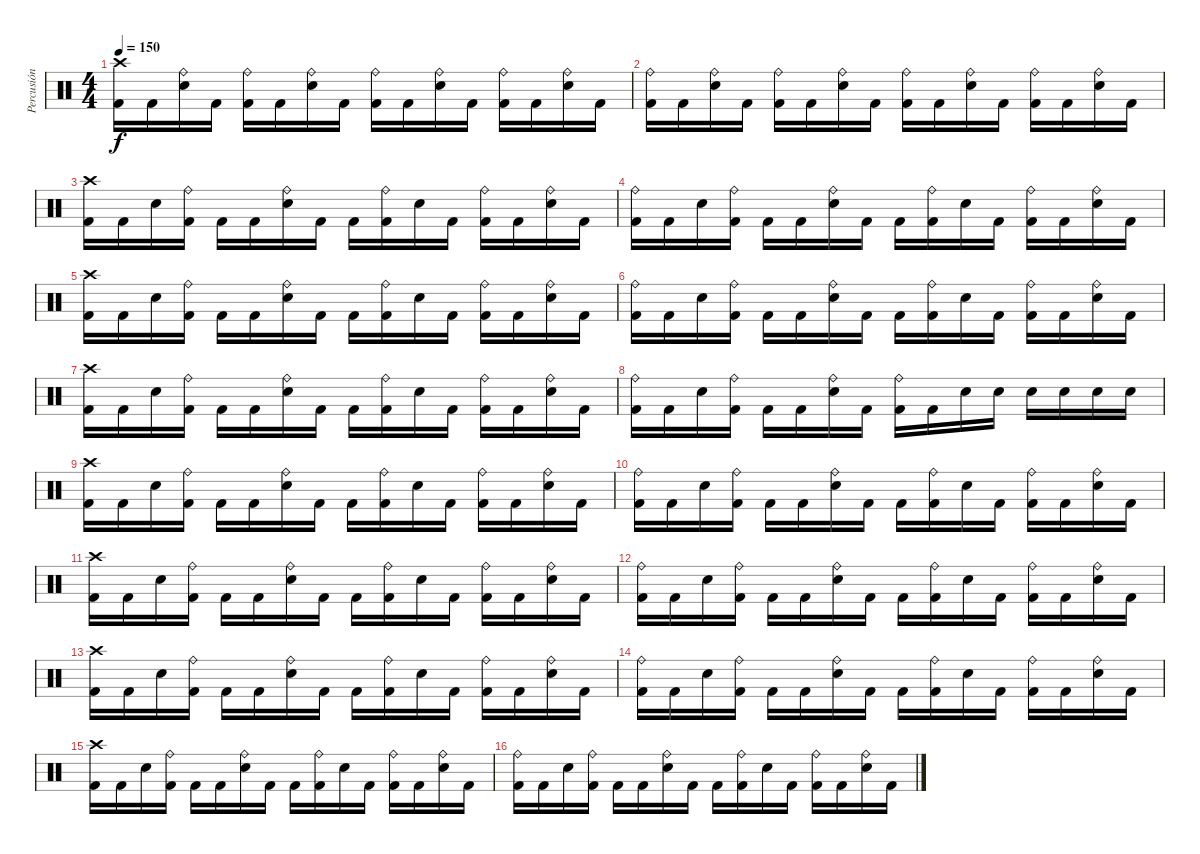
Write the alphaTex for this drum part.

\track ("Percusión" "Percusión") {instrument percussion}
\staff {score}
\articulation defaults
\ts (4 4)
\tempo 150
\clef neutral
\ks c
("Crash high (hit)" "Kick (hit) 2").16{dy f} "Kick (hit) 2".16 ("Ride (bell)" "Electric Snare (hit)").16 "Kick (hit) 2".16 ("Ride (bell)" "Kick (hit) 2").16 "Kick (hit) 2".16 ("Ride (bell)" "Electric Snare (hit)").16 "Kick (hit) 2".16 ("Ride (bell)" "Kick (hit) 2").16 "Kick (hit) 2".16 ("Ride (bell)" "Electric Snare (hit)").16 "Kick (hit) 2".16 ("Ride (bell)" "Kick (hit) 2").16 "Kick (hit) 2".16 ("Ride (bell)" "Electric Snare (hit)").16 "Kick (hit) 2".16 |
("Ride (bell)" "Kick (hit) 2").16 "Kick (hit) 2".16 ("Ride (bell)" "Electric Snare (hit)").16 "Kick (hit) 2".16 ("Ride (bell)" "Kick (hit) 2").16 "Kick (hit) 2".16 ("Ride (bell)" "Electric Snare (hit)").16 "Kick (hit) 2".16 ("Ride (bell)" "Kick (hit) 2").16 "Kick (hit) 2".16 ("Ride (bell)" "Electric Snare (hit)").16 "Kick (hit) 2".16 ("Ride (bell)" "Kick (hit) 2").16 "Kick (hit) 2".16 ("Ride (bell)" "Electric Snare (hit)").16 "Kick (hit) 2".16 |
("Crash high (hit)" "Kick (hit) 2").16 "Kick (hit) 2".16 "Electric Snare (hit)".16 ("Ride (bell)" "Kick (hit) 2").16 "Kick (hit) 2".16 "Kick (hit) 2".16 ("Ride (bell)" "Electric Snare (hit)").16 "Kick (hit) 2".16 "Kick (hit) 2".16 ("Ride (bell)" "Kick (hit) 2").16 "Electric Snare (hit)".16 "Kick (hit) 2".16 ("Ride (bell)" "Kick (hit) 2").16 "Kick (hit) 2".16 ("Ride (bell)" "Electric Snare (hit)").16 "Kick (hit) 2".16 |
("Ride (bell)" "Kick (hit) 2").16 "Kick (hit) 2".16 "Electric Snare (hit)".16 ("Ride (bell)" "Kick (hit) 2").16 "Kick (hit) 2".16 "Kick (hit) 2".16 ("Ride (bell)" "Electric Snare (hit)").16 "Kick (hit) 2".16 "Kick (hit) 2".16 ("Ride (bell)" "Kick (hit) 2").16 "Electric Snare (hit)".16 "Kick (hit) 2".16 ("Ride (bell)" "Kick (hit) 2").16 "Kick (hit) 2".16 ("Ride (bell)" "Electric Snare (hit)").16 "Kick (hit) 2".16 |
("Crash high (hit)" "Kick (hit) 2").16 "Kick (hit) 2".16 "Electric Snare (hit)".16 ("Ride (bell)" "Kick (hit) 2").16 "Kick (hit) 2".16 "Kick (hit) 2".16 ("Ride (bell)" "Electric Snare (hit)").16 "Kick (hit) 2".16 "Kick (hit) 2".16 ("Ride (bell)" "Kick (hit) 2").16 "Electric Snare (hit)".16 "Kick (hit) 2".16 ("Ride (bell)" "Kick (hit) 2").16 "Kick (hit) 2".16 ("Ride (bell)" "Electric Snare (hit)").16 "Kick (hit) 2".16 |
("Ride (bell)" "Kick (hit) 2").16 "Kick (hit) 2".16 "Electric Snare (hit)".16 ("Ride (bell)" "Kick (hit) 2").16 "Kick (hit) 2".16 "Kick (hit) 2".16 ("Ride (bell)" "Electric Snare (hit)").16 "Kick (hit) 2".16 "Kick (hit) 2".16 ("Ride (bell)" "Kick (hit) 2").16 "Electric Snare (hit)".16 "Kick (hit) 2".16 ("Ride (bell)" "Kick (hit) 2").16 "Kick (hit) 2".16 ("Ride (bell)" "Electric Snare (hit)").16 "Kick (hit) 2".16 |
("Crash high (hit)" "Kick (hit) 2").16 "Kick (hit) 2".16 "Electric Snare (hit)".16 ("Ride (bell)" "Kick (hit) 2").16 "Kick (hit) 2".16 "Kick (hit) 2".16 ("Ride (bell)" "Electric Snare (hit)").16 "Kick (hit) 2".16 "Kick (hit) 2".16 ("Ride (bell)" "Kick (hit) 2").16 "Electric Snare (hit)".16 "Kick (hit) 2".16 ("Ride (bell)" "Kick (hit) 2").16 "Kick (hit) 2".16 ("Ride (bell)" "Electric Snare (hit)").16 "Kick (hit) 2".16 |
("Ride (bell)" "Kick (hit) 2").16 "Kick (hit) 2".16 "Electric Snare (hit)".16 ("Ride (bell)" "Kick (hit) 2").16 "Kick (hit) 2".16 "Kick (hit) 2".16 ("Ride (bell)" "Electric Snare (hit)").16 "Kick (hit) 2".16 ("Ride (bell)" "Kick (hit) 2").16 "Kick (hit) 2".16 "Electric Snare (hit)".16 "Electric Snare (hit)".16 "Electric Snare (hit)".16 "Electric Snare (hit)".16 "Electric Snare (hit)".16 "Electric Snare (hit)".16 |
("Crash high (hit)" "Kick (hit) 2").16 "Kick (hit) 2".16 "Electric Snare (hit)".16 ("Ride (bell)" "Kick (hit) 2").16 "Kick (hit) 2".16 "Kick (hit) 2".16 ("Ride (bell)" "Electric Snare (hit)").16 "Kick (hit) 2".16 "Kick (hit) 2".16 ("Ride (bell)" "Kick (hit) 2").16 "Electric Snare (hit)".16 "Kick (hit) 2".16 ("Ride (bell)" "Kick (hit) 2").16 "Kick (hit) 2".16 ("Ride (bell)" "Electric Snare (hit)").16 "Kick (hit) 2".16 |
("Ride (bell)" "Kick (hit) 2").16 "Kick (hit) 2".16 "Electric Snare (hit)".16 ("Ride (bell)" "Kick (hit) 2").16 "Kick (hit) 2".16 "Kick (hit) 2".16 ("Ride (bell)" "Electric Snare (hit)").16 "Kick (hit) 2".16 "Kick (hit) 2".16 ("Ride (bell)" "Kick (hit) 2").16 "Electric Snare (hit)".16 "Kick (hit) 2".16 ("Ride (bell)" "Kick (hit) 2").16 "Kick (hit) 2".16 ("Ride (bell)" "Electric Snare (hit)").16 "Kick (hit) 2".16 |
("Crash high (hit)" "Kick (hit) 2").16 "Kick (hit) 2".16 "Electric Snare (hit)".16 ("Ride (bell)" "Kick (hit) 2").16 "Kick (hit) 2".16 "Kick (hit) 2".16 ("Ride (bell)" "Electric Snare (hit)").16 "Kick (hit) 2".16 "Kick (hit) 2".16 ("Ride (bell)" "Kick (hit) 2").16 "Electric Snare (hit)".16 "Kick (hit) 2".16 ("Ride (bell)" "Kick (hit) 2").16 "Kick (hit) 2".16 ("Ride (bell)" "Electric Snare (hit)").16 "Kick (hit) 2".16 |
("Ride (bell)" "Kick (hit) 2").16 "Kick (hit) 2".16 "Electric Snare (hit)".16 ("Ride (bell)" "Kick (hit) 2").16 "Kick (hit) 2".16 "Kick (hit) 2".16 ("Ride (bell)" "Electric Snare (hit)").16 "Kick (hit) 2".16 "Kick (hit) 2".16 ("Ride (bell)" "Kick (hit) 2").16 "Electric Snare (hit)".16 "Kick (hit) 2".16 ("Ride (bell)" "Kick (hit) 2").16 "Kick (hit) 2".16 ("Ride (bell)" "Electric Snare (hit)").16 "Kick (hit) 2".16 |
("Crash high (hit)" "Kick (hit) 2").16 "Kick (hit) 2".16 "Electric Snare (hit)".16 ("Ride (bell)" "Kick (hit) 2").16 "Kick (hit) 2".16 "Kick (hit) 2".16 ("Ride (bell)" "Electric Snare (hit)").16 "Kick (hit) 2".16 "Kick (hit) 2".16 ("Ride (bell)" "Kick (hit) 2").16 "Electric Snare (hit)".16 "Kick (hit) 2".16 ("Ride (bell)" "Kick (hit) 2").16 "Kick (hit) 2".16 ("Ride (bell)" "Electric Snare (hit)").16 "Kick (hit) 2".16 |
("Ride (bell)" "Kick (hit) 2").16 "Kick (hit) 2".16 "Electric Snare (hit)".16 ("Ride (bell)" "Kick (hit) 2").16 "Kick (hit) 2".16 "Kick (hit) 2".16 ("Ride (bell)" "Electric Snare (hit)").16 "Kick (hit) 2".16 "Kick (hit) 2".16 ("Ride (bell)" "Kick (hit) 2").16 "Electric Snare (hit)".16 "Kick (hit) 2".16 ("Ride (bell)" "Kick (hit) 2").16 "Kick (hit) 2".16 ("Ride (bell)" "Electric Snare (hit)").16 "Kick (hit) 2".16 |
("Crash high (hit)" "Kick (hit) 2").16 "Kick (hit) 2".16 "Electric Snare (hit)".16 ("Ride (bell)" "Kick (hit) 2").16 "Kick (hit) 2".16 "Kick (hit) 2".16 ("Ride (bell)" "Electric Snare (hit)").16 "Kick (hit) 2".16 "Kick (hit) 2".16 ("Ride (bell)" "Kick (hit) 2").16 "Electric Snare (hit)".16 "Kick (hit) 2".16 ("Ride (bell)" "Kick (hit) 2").16 "Kick (hit) 2".16 ("Ride (bell)" "Electric Snare (hit)").16 "Kick (hit) 2".16 |
("Ride (bell)" "Kick (hit) 2").16 "Kick (hit) 2".16 "Electric Snare (hit)".16 ("Ride (bell)" "Kick (hit) 2").16 "Kick (hit) 2".16 "Kick (hit) 2".16 ("Ride (bell)" "Electric Snare (hit)").16 "Kick (hit) 2".16 "Kick (hit) 2".16 ("Ride (bell)" "Kick (hit) 2").16 "Electric Snare (hit)".16 "Kick (hit) 2".16 ("Ride (bell)" "Kick (hit) 2").16 "Kick (hit) 2".16 ("Ride (bell)" "Electric Snare (hit)").16 "Kick (hit) 2".16
